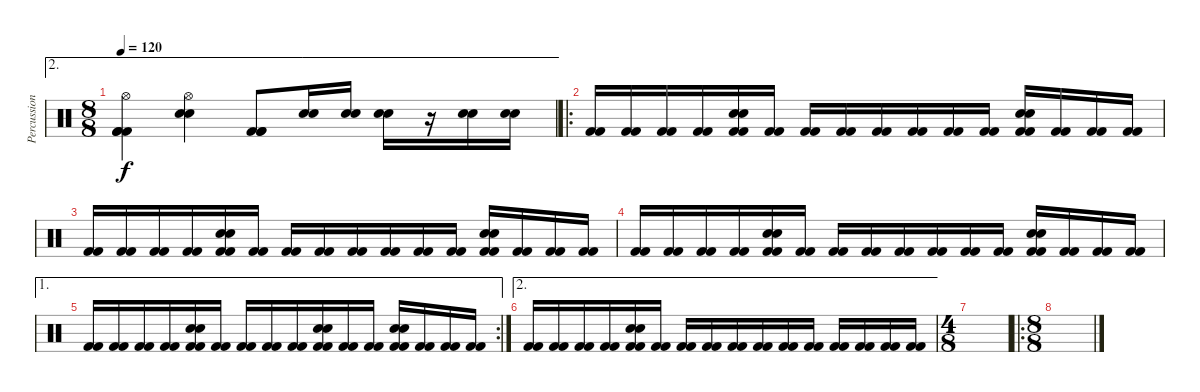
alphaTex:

\track ("Percussions" "Percussion") {instrument percussion}
\staff {score}
\articulation defaults
\ae 2
\ts (8 8)
\tempo 120
\clef neutral
\ks c
("Kick (hit) 2" "Kick (hit) 2" "Kick (hit) 2" "Hi-Hat (open)").4{dy f} ("Electric Snare (hit)" "Electric Snare (hit)" "Hi-Hat (open)").4 ("Kick (hit) 2" "Kick (hit) 2" "Kick (hit) 2").8 ("Electric Snare (hit)" "Electric Snare (hit)").16 ("Electric Snare (hit)" "Electric Snare (hit)").16 ("Electric Snare (hit)" "Electric Snare (hit)").16 r.16 ("Electric Snare (hit)" "Electric Snare (hit)").16 ("Electric Snare (hit)" "Electric Snare (hit)").16 |
\ro
("Kick (hit) 2" "Kick (hit) 2").16 ("Kick (hit) 2" "Kick (hit) 2").16 ("Kick (hit) 2" "Kick (hit) 2").16 ("Kick (hit) 2" "Kick (hit) 2").16 ("Kick (hit) 2" "Kick (hit) 2" "Electric Snare (hit)" "Electric Snare (hit)").16 ("Kick (hit) 2" "Kick (hit) 2").16 ("Kick (hit) 2" "Kick (hit) 2").16 ("Kick (hit) 2" "Kick (hit) 2").16 ("Kick (hit) 2" "Kick (hit) 2").16 ("Kick (hit) 2" "Kick (hit) 2").16 ("Kick (hit) 2" "Kick (hit) 2").16 ("Kick (hit) 2" "Kick (hit) 2").16 ("Kick (hit) 2" "Kick (hit) 2" "Electric Snare (hit)" "Electric Snare (hit)").16 ("Kick (hit) 2" "Kick (hit) 2").16 ("Kick (hit) 2" "Kick (hit) 2").16 ("Kick (hit) 2" "Kick (hit) 2").16 |
("Kick (hit) 2" "Kick (hit) 2").16 ("Kick (hit) 2" "Kick (hit) 2").16 ("Kick (hit) 2" "Kick (hit) 2").16 ("Kick (hit) 2" "Kick (hit) 2").16 ("Kick (hit) 2" "Kick (hit) 2" "Electric Snare (hit)" "Electric Snare (hit)").16 ("Kick (hit) 2" "Kick (hit) 2").16 ("Kick (hit) 2" "Kick (hit) 2").16 ("Kick (hit) 2" "Kick (hit) 2").16 ("Kick (hit) 2" "Kick (hit) 2").16 ("Kick (hit) 2" "Kick (hit) 2").16 ("Kick (hit) 2" "Kick (hit) 2").16 ("Kick (hit) 2" "Kick (hit) 2").16 ("Kick (hit) 2" "Kick (hit) 2" "Electric Snare (hit)" "Electric Snare (hit)").16 ("Kick (hit) 2" "Kick (hit) 2").16 ("Kick (hit) 2" "Kick (hit) 2").16 ("Kick (hit) 2" "Kick (hit) 2").16 |
("Kick (hit) 2" "Kick (hit) 2").16 ("Kick (hit) 2" "Kick (hit) 2").16 ("Kick (hit) 2" "Kick (hit) 2").16 ("Kick (hit) 2" "Kick (hit) 2").16 ("Kick (hit) 2" "Kick (hit) 2" "Electric Snare (hit)" "Electric Snare (hit)").16 ("Kick (hit) 2" "Kick (hit) 2").16 ("Kick (hit) 2" "Kick (hit) 2").16 ("Kick (hit) 2" "Kick (hit) 2").16 ("Kick (hit) 2" "Kick (hit) 2").16 ("Kick (hit) 2" "Kick (hit) 2").16 ("Kick (hit) 2" "Kick (hit) 2").16 ("Kick (hit) 2" "Kick (hit) 2").16 ("Kick (hit) 2" "Kick (hit) 2" "Electric Snare (hit)" "Electric Snare (hit)").16 ("Kick (hit) 2" "Kick (hit) 2").16 ("Kick (hit) 2" "Kick (hit) 2").16 ("Kick (hit) 2" "Kick (hit) 2").16 |
\ae 1
\rc 2
("Kick (hit) 2" "Kick (hit) 2").16 ("Kick (hit) 2" "Kick (hit) 2").16 ("Kick (hit) 2" "Kick (hit) 2").16 ("Kick (hit) 2" "Kick (hit) 2").16 ("Kick (hit) 2" "Kick (hit) 2" "Electric Snare (hit)" "Electric Snare (hit)").16 ("Kick (hit) 2" "Kick (hit) 2").16 ("Kick (hit) 2" "Kick (hit) 2").16 ("Kick (hit) 2" "Kick (hit) 2").16 ("Kick (hit) 2" "Kick (hit) 2").16 ("Kick (hit) 2" "Kick (hit) 2" "Electric Snare (hit)" "Electric Snare (hit)").16 ("Kick (hit) 2" "Kick (hit) 2").16 ("Kick (hit) 2" "Kick (hit) 2").16 ("Kick (hit) 2" "Kick (hit) 2" "Electric Snare (hit)" "Electric Snare (hit)").16 ("Kick (hit) 2" "Kick (hit) 2").16 ("Kick (hit) 2" "Kick (hit) 2").16 ("Kick (hit) 2" "Kick (hit) 2").16 |
\ae 2
("Kick (hit) 2" "Kick (hit) 2").16 ("Kick (hit) 2" "Kick (hit) 2").16 ("Kick (hit) 2" "Kick (hit) 2").16 ("Kick (hit) 2" "Kick (hit) 2").16 ("Kick (hit) 2" "Kick (hit) 2" "Electric Snare (hit)" "Electric Snare (hit)").16 ("Kick (hit) 2" "Kick (hit) 2").16 ("Kick (hit) 2" "Kick (hit) 2").16 ("Kick (hit) 2" "Kick (hit) 2").16 ("Kick (hit) 2" "Kick (hit) 2").16 ("Kick (hit) 2" "Kick (hit) 2").16 ("Kick (hit) 2" "Kick (hit) 2").16 ("Kick (hit) 2" "Kick (hit) 2").16 ("Kick (hit) 2" "Kick (hit) 2").16 ("Kick (hit) 2" "Kick (hit) 2").16 ("Kick (hit) 2" "Kick (hit) 2").16 ("Kick (hit) 2" "Kick (hit) 2").16 |
\ts (4 8)
|
\ro
\ts (8 8)
